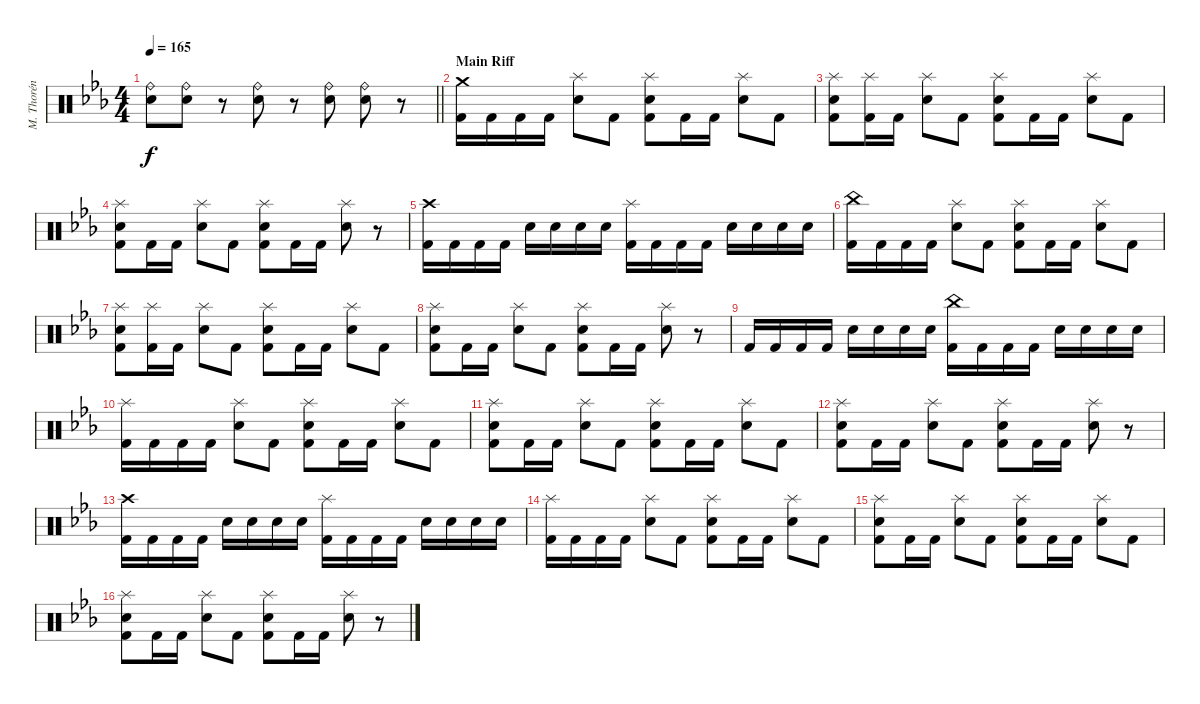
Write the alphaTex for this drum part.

\track ("M. Thorén (Drums)" "M. Thorén ") {instrument percussion}
\staff {score}
\articulation defaults
\ts (4 4)
\tempo 165
\clef neutral
\barLineRight lightlight
\ks cminor
("Ride (bell)" "Electric Snare (hit)").8{dy f} ("Ride (bell)" "Electric Snare (hit)").8 r.8 ("Ride (bell)" "Electric Snare (hit)").8 r.8 ("Ride (bell)" "Electric Snare (hit)").8 ("Ride (bell)" "Electric Snare (hit)").8 r.8 |
\section ("" "Main Riff")
("Crash medium (hit)" "Kick (hit) 2").16 "Kick (hit) 2".16 "Kick (hit) 2".16 "Kick (hit) 2".16 ("Splash (hit)" "Electric Snare (hit)").8 "Kick (hit) 2".8 ("Splash (hit)" "Electric Snare (hit)" "Kick (hit) 2").8 "Kick (hit) 2".16 "Kick (hit) 2".16 ("Splash (hit)" "Electric Snare (hit)").8 "Kick (hit) 2".8 |
("Splash (hit)" "Electric Snare (hit)" "Kick (hit) 2").8 ("Splash (hit)" "Kick (hit) 2").16 "Kick (hit) 2".16 ("Splash (hit)" "Electric Snare (hit)").8 "Kick (hit) 2".8 ("Splash (hit)" "Electric Snare (hit)" "Kick (hit) 2").8 "Kick (hit) 2".16 "Kick (hit) 2".16 ("Splash (hit)" "Electric Snare (hit)").8 "Kick (hit) 2".8 |
("Splash (hit)" "Electric Snare (hit)" "Kick (hit) 2").8 "Kick (hit) 2".16 "Kick (hit) 2".16 ("Splash (hit)" "Electric Snare (hit)").8 "Kick (hit) 2".8 ("Splash (hit)" "Electric Snare (hit)" "Kick (hit) 2").8 "Kick (hit) 2".16 "Kick (hit) 2".16 ("Splash (hit)" "Electric Snare (hit)").8 r.8 |
("Crash high (hit)" "Kick (hit) 2").16 "Kick (hit) 2".16 "Kick (hit) 2".16 "Kick (hit) 2".16 "Electric Snare (hit)".16 "Electric Snare (hit)".16 "Electric Snare (hit)".16 "Electric Snare (hit)".16 ("Splash (hit)" "Kick (hit) 2").16 "Kick (hit) 2".16 "Kick (hit) 2".16 "Kick (hit) 2".16 "Electric Snare (hit)".16 "Electric Snare (hit)".16 "Electric Snare (hit)".16 "Electric Snare (hit)".16 |
("China (hit)" "Kick (hit) 2").16 "Kick (hit) 2".16 "Kick (hit) 2".16 "Kick (hit) 2".16 ("Splash (hit)" "Electric Snare (hit)").8 "Kick (hit) 2".8 ("Splash (hit)" "Electric Snare (hit)" "Kick (hit) 2").8 "Kick (hit) 2".16 "Kick (hit) 2".16 ("Splash (hit)" "Electric Snare (hit)").8 "Kick (hit) 2".8 |
("Splash (hit)" "Electric Snare (hit)" "Kick (hit) 2").8 ("Splash (hit)" "Kick (hit) 2").16 "Kick (hit) 2".16 ("Splash (hit)" "Electric Snare (hit)").8 "Kick (hit) 2".8 ("Splash (hit)" "Electric Snare (hit)" "Kick (hit) 2").8 "Kick (hit) 2".16 "Kick (hit) 2".16 ("Splash (hit)" "Electric Snare (hit)").8 "Kick (hit) 2".8 |
("Splash (hit)" "Electric Snare (hit)" "Kick (hit) 2").8 "Kick (hit) 2".16 "Kick (hit) 2".16 ("Splash (hit)" "Electric Snare (hit)").8 "Kick (hit) 2".8 ("Splash (hit)" "Electric Snare (hit)" "Kick (hit) 2").8 "Kick (hit) 2".16 "Kick (hit) 2".16 ("Splash (hit)" "Electric Snare (hit)").8 r.8 |
"Kick (hit) 2".16 "Kick (hit) 2".16 "Kick (hit) 2".16 "Kick (hit) 2".16 "Electric Snare (hit)".16 "Electric Snare (hit)".16 "Electric Snare (hit)".16 "Electric Snare (hit)".16 ("China (hit)" "Kick (hit) 2").16 "Kick (hit) 2".16 "Kick (hit) 2".16 "Kick (hit) 2".16 "Electric Snare (hit)".16 "Electric Snare (hit)".16 "Electric Snare (hit)".16 "Electric Snare (hit)".16 |
("Splash (hit)" "Kick (hit) 2").16 "Kick (hit) 2".16 "Kick (hit) 2".16 "Kick (hit) 2".16 ("Splash (hit)" "Electric Snare (hit)").8 "Kick (hit) 2".8 ("Splash (hit)" "Electric Snare (hit)" "Kick (hit) 2").8 "Kick (hit) 2".16 "Kick (hit) 2".16 ("Splash (hit)" "Electric Snare (hit)").8 "Kick (hit) 2".8 |
("Splash (hit)" "Electric Snare (hit)" "Kick (hit) 2").8 "Kick (hit) 2".16 "Kick (hit) 2".16 ("Splash (hit)" "Electric Snare (hit)").8 "Kick (hit) 2".8 ("Splash (hit)" "Electric Snare (hit)" "Kick (hit) 2").8 "Kick (hit) 2".16 "Kick (hit) 2".16 ("Splash (hit)" "Electric Snare (hit)").8 "Kick (hit) 2".8 |
("Splash (hit)" "Electric Snare (hit)" "Kick (hit) 2").8 "Kick (hit) 2".16 "Kick (hit) 2".16 ("Splash (hit)" "Electric Snare (hit)").8 "Kick (hit) 2".8 ("Splash (hit)" "Electric Snare (hit)" "Kick (hit) 2").8 "Kick (hit) 2".16 "Kick (hit) 2".16 ("Splash (hit)" "Electric Snare (hit)").8 r.8 |
("Crash high (hit)" "Kick (hit) 2").16 "Kick (hit) 2".16 "Kick (hit) 2".16 "Kick (hit) 2".16 "Electric Snare (hit)".16 "Electric Snare (hit)".16 "Electric Snare (hit)".16 "Electric Snare (hit)".16 ("Splash (hit)" "Kick (hit) 2").16 "Kick (hit) 2".16 "Kick (hit) 2".16 "Kick (hit) 2".16 "Electric Snare (hit)".16 "Electric Snare (hit)".16 "Electric Snare (hit)".16 "Electric Snare (hit)".16 |
("Splash (hit)" "Kick (hit) 2").16 "Kick (hit) 2".16 "Kick (hit) 2".16 "Kick (hit) 2".16 ("Splash (hit)" "Electric Snare (hit)").8 "Kick (hit) 2".8 ("Splash (hit)" "Electric Snare (hit)" "Kick (hit) 2").8 "Kick (hit) 2".16 "Kick (hit) 2".16 ("Splash (hit)" "Electric Snare (hit)").8 "Kick (hit) 2".8 |
("Splash (hit)" "Electric Snare (hit)" "Kick (hit) 2").8 "Kick (hit) 2".16 "Kick (hit) 2".16 ("Splash (hit)" "Electric Snare (hit)").8 "Kick (hit) 2".8 ("Splash (hit)" "Electric Snare (hit)" "Kick (hit) 2").8 "Kick (hit) 2".16 "Kick (hit) 2".16 ("Splash (hit)" "Electric Snare (hit)").8 "Kick (hit) 2".8 |
("Splash (hit)" "Electric Snare (hit)" "Kick (hit) 2").8 "Kick (hit) 2".16 "Kick (hit) 2".16 ("Splash (hit)" "Electric Snare (hit)").8 "Kick (hit) 2".8 ("Splash (hit)" "Electric Snare (hit)" "Kick (hit) 2").8 "Kick (hit) 2".16 "Kick (hit) 2".16 ("Splash (hit)" "Electric Snare (hit)").8 r.8
